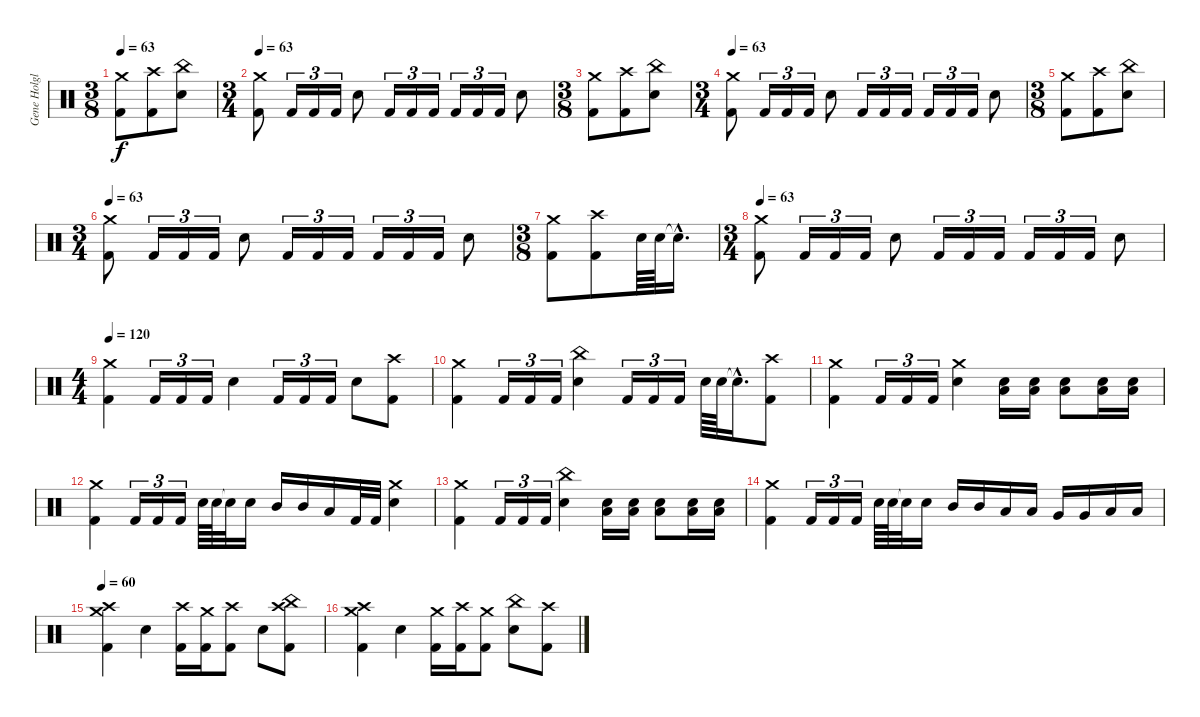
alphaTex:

\track ("Gene Holglan" "Gene Holgl") {instrument percussion}
\staff {score}
\articulation defaults
\ts (3 8)
\tempo 63
\clef neutral
\ks c
("Crash medium (hit)" "Kick (hit) 2").8{dy f} ("Crash high (hit)" "Kick (hit) 2").8 ("China (hit)" "Snare (hit) 2").8 |
\ts (3 4)
\tempo 63
("Crash medium (hit)" "Kick (hit) 2").8 "Kick (hit) 2".16{tu (3 2)} "Kick (hit) 2".16{tu (3 2)} "Kick (hit) 2".16{tu (3 2)} "Snare (hit) 2".8 "Kick (hit) 2".16{tu (3 2)} "Kick (hit) 2".16{tu (3 2)} "Kick (hit) 2".16{tu (3 2)} "Kick (hit) 2".16{tu (3 2)} "Kick (hit) 2".16{tu (3 2)} "Kick (hit) 2".16{tu (3 2)} "Snare (hit) 2".8 |
\ts (3 8)
("Crash medium (hit)" "Kick (hit) 2").8 ("Crash high (hit)" "Kick (hit) 2").8 ("China (hit)" "Snare (hit) 2").8 |
\ts (3 4)
\tempo 63
("Crash medium (hit)" "Kick (hit) 2").8 "Kick (hit) 2".16{tu (3 2)} "Kick (hit) 2".16{tu (3 2)} "Kick (hit) 2".16{tu (3 2)} "Snare (hit) 2".8 "Kick (hit) 2".16{tu (3 2)} "Kick (hit) 2".16{tu (3 2)} "Kick (hit) 2".16{tu (3 2)} "Kick (hit) 2".16{tu (3 2)} "Kick (hit) 2".16{tu (3 2)} "Kick (hit) 2".16{tu (3 2)} "Snare (hit) 2".8 |
\ts (3 8)
("Crash medium (hit)" "Kick (hit) 2").8 ("Crash high (hit)" "Kick (hit) 2").8 ("China (hit)" "Snare (hit) 2").8 |
\ts (3 4)
\tempo 63
("Crash medium (hit)" "Kick (hit) 2").8 "Kick (hit) 2".16{tu (3 2)} "Kick (hit) 2".16{tu (3 2)} "Kick (hit) 2".16{tu (3 2)} "Snare (hit) 2".8 "Kick (hit) 2".16{tu (3 2)} "Kick (hit) 2".16{tu (3 2)} "Kick (hit) 2".16{tu (3 2)} "Kick (hit) 2".16{tu (3 2)} "Kick (hit) 2".16{tu (3 2)} "Kick (hit) 2".16{tu (3 2)} "Snare (hit) 2".8 |
\ts (3 8)
("Crash medium (hit)" "Kick (hit) 2").8 ("Crash high (hit)" "Kick (hit) 2").8 "Snare (hit) 2".64 "Snare (hit) 2".64 "Snare (hit)"{hac t}.16{d} |
\ts (3 4)
\tempo 63
("Crash medium (hit)" "Kick (hit) 2").8 "Kick (hit) 2".16{tu (3 2)} "Kick (hit) 2".16{tu (3 2)} "Kick (hit) 2".16{tu (3 2)} "Snare (hit) 2".8 "Kick (hit) 2".16{tu (3 2)} "Kick (hit) 2".16{tu (3 2)} "Kick (hit) 2".16{tu (3 2)} "Kick (hit) 2".16{tu (3 2)} "Kick (hit) 2".16{tu (3 2)} "Kick (hit) 2".16{tu (3 2)} "Snare (hit) 2".8 |
\ts (4 4)
\tempo 120
("Crash medium (hit)" "Kick (hit) 2").4 "Kick (hit) 2".16{tu (3 2)} "Kick (hit) 2".16{tu (3 2)} "Kick (hit) 2".16{tu (3 2)} "Snare (hit) 2".4 "Kick (hit) 2".16{tu (3 2)} "Kick (hit) 2".16{tu (3 2)} "Kick (hit) 2".16{tu (3 2)} "Snare (hit) 2".8 ("Crash high (hit)" "Kick (hit) 2").8 |
("Crash medium (hit)" "Kick (hit) 2").4 "Kick (hit) 2".16{tu (3 2)} "Kick (hit) 2".16{tu (3 2)} "Kick (hit) 2".16{tu (3 2)} ("China (hit)" "Snare (hit) 2").4 "Kick (hit) 2".16{tu (3 2)} "Kick (hit) 2".16{tu (3 2)} "Kick (hit) 2".16{tu (3 2)} "Snare (hit) 2".64 "Snare (hit) 2".64 "Snare (hit)"{hac t}.16{d} ("Crash high (hit)" "Kick (hit) 2").8 |
("Crash medium (hit)" "Kick (hit) 2").4 "Kick (hit) 2".16{tu (3 2)} "Kick (hit) 2".16{tu (3 2)} "Kick (hit) 2".16{tu (3 2)} ("Crash medium (hit)" "Snare (hit) 2").4 ("Snare (hit) 2" "Low Floor Tom (hit)").16 ("Snare (hit) 2" "Low Floor Tom (hit)").16 ("Snare (hit) 2" "Low Floor Tom (hit)").8 ("Snare (hit) 2" "Low Floor Tom (hit)").16 ("Snare (hit) 2" "Low Floor Tom (hit)").16 |
("Crash medium (hit)" "Kick (hit) 2").4 "Kick (hit) 2".16{tu (3 2)} "Kick (hit) 2".16{tu (3 2)} "Kick (hit) 2".16{tu (3 2)} "Snare (hit) 2".64 "Snare (hit) 2".64 "Snare (hit)"{t}.32 "Snare (hit) 2".16 "Mid Tom (hit)".16 "Mid Tom (hit)".16 "Low Tom (hit)".16 "Kick (hit) 2".32 "Kick (hit) 2".32 ("Crash medium (hit)" "Snare (hit) 2").4 |
("Crash medium (hit)" "Kick (hit) 2").4 "Kick (hit) 2".16{tu (3 2)} "Kick (hit) 2".16{tu (3 2)} "Kick (hit) 2".16{tu (3 2)} ("China (hit)" "Snare (hit) 2").4 ("Snare (hit) 2" "Low Floor Tom (hit)").16 ("Snare (hit) 2" "Low Floor Tom (hit)").16 ("Snare (hit) 2" "Low Floor Tom (hit)").8 ("Snare (hit) 2" "Low Floor Tom (hit)").16 ("Snare (hit) 2" "Low Floor Tom (hit)").16 |
("Crash medium (hit)" "Kick (hit) 2").4 "Kick (hit) 2".16{tu (3 2)} "Kick (hit) 2".16{tu (3 2)} "Kick (hit) 2".16{tu (3 2)} "Snare (hit) 2".64 "Snare (hit) 2".64 "Snare (hit)"{t}.32 "Snare (hit) 2".16 "Mid Tom (hit)".16 "Mid Tom (hit)".16 "Low Tom (hit)".16 "Low Tom (hit)".16 "Very Low Tom (hit)".16 "Very Low Tom (hit)".16 "Low Floor Tom (hit)".16 "Low Floor Tom (hit)".16 |
\tempo 60
("Crash medium (hit)" "Crash high (hit)" "Kick (hit) 2").4 "Snare (hit) 2".4 ("Crash high (hit)" "Kick (hit) 2").16 ("Crash medium (hit)" "Kick (hit) 2").16 ("Crash high (hit)" "Kick (hit) 2").8 "Snare (hit) 2".8 ("Crash high (hit)" "China (hit)" "Kick (hit) 2").8 |
("Crash medium (hit)" "Crash high (hit)" "Kick (hit) 2").4 "Snare (hit) 2".4 ("Crash medium (hit)" "Kick (hit) 2").16 ("Crash high (hit)" "Kick (hit) 2").16 ("Crash medium (hit)" "Kick (hit) 2").8 ("China (hit)" "Snare (hit) 2").8 ("Crash high (hit)" "Kick (hit) 2").8
